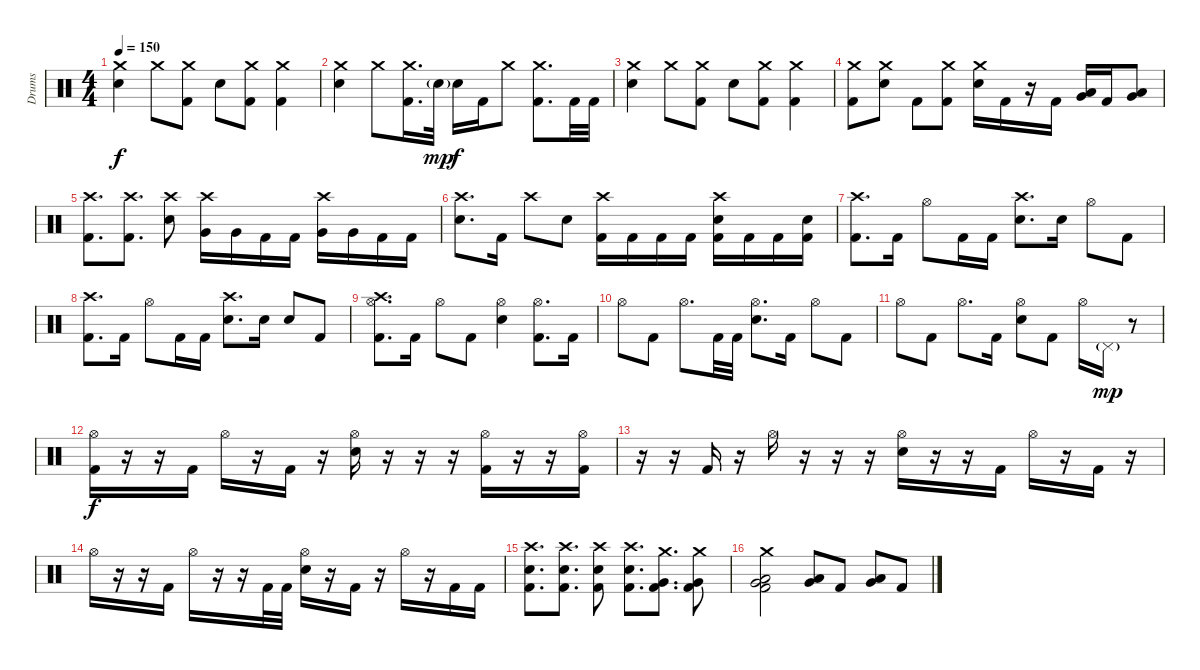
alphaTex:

\track ("Drums" "Drums") {instrument percussion}
\staff {score}
\articulation defaults
\ts (4 4)
\tempo 150
\clef neutral
\ks c
("Crash medium (hit)" "Snare (hit) 2").4{dy f} "Crash medium (hit)".8 ("Crash medium (hit)" "Kick (hit) 2").8 "Snare (hit) 2".8 ("Crash medium (hit)" "Kick (hit) 2").8 ("Crash medium (hit)" "Kick (hit) 2").4 |
("Crash medium (hit)" "Snare (hit) 2").4 "Crash medium (hit)".8 ("Crash medium (hit)" "Kick (hit) 2").16{d} "Snare (hit) 2"{g}.32{dy mp} "Snare (hit) 2".16{dy f} "Kick (hit) 2".16 "Crash medium (hit)".8 ("Crash medium (hit)" "Kick (hit) 2").8{d} "Kick (hit) 2".32 "Kick (hit) 2".32 |
("Crash medium (hit)" "Snare (hit) 2").4 "Crash medium (hit)".8 ("Crash medium (hit)" "Kick (hit) 2").8 "Snare (hit) 2".8 ("Crash medium (hit)" "Kick (hit) 2").8 ("Crash medium (hit)" "Kick (hit) 2").4 |
("Crash medium (hit)" "Kick (hit) 2").8 ("Crash medium (hit)" "Snare (hit) 2").8 "Kick (hit) 2".8 ("Crash medium (hit)" "Kick (hit) 2").8 ("Crash medium (hit)" "Snare (hit) 2").16 "Kick (hit) 2".16 r.16 "Kick (hit) 2".16 ("Very Low Tom (hit)" "Low Tom (hit)").16 "Kick (hit) 2".16 ("Low Floor Tom (hit)" "Very Low Tom (hit)").8 |
("Crash high (hit)" "Kick (hit) 2").8{d} ("Crash high (hit)" "Kick (hit) 2").8{d} ("Crash high (hit)" "Snare (hit) 2").8 ("Crash high (hit)" "Very Low Tom (hit)").16 "Very Low Tom (hit)".16 "Kick (hit) 2".16 "Kick (hit) 2".16 ("Crash high (hit)" "Very Low Tom (hit)").16 "Very Low Tom (hit)".16 "Kick (hit) 2".16 "Kick (hit) 2".16 |
("Crash high (hit)" "Snare (hit) 2").8{d} "Kick (hit) 2".16 "Crash high (hit)".8 "Snare (hit) 2".8 ("Crash high (hit)" "Kick (hit) 2").16 "Kick (hit) 2".16 "Kick (hit) 2".16 "Kick (hit) 2".16 ("Crash high (hit)" "Snare (hit) 2" "Kick (hit) 2").16 "Kick (hit) 2".16 "Kick (hit) 2".16 ("Snare (hit) 2" "Kick (hit) 2").16 |
("Crash high (hit)" "Kick (hit) 2").8{d} "Kick (hit) 2".16 "Hi-Hat (open)".8 "Kick (hit) 2".16 "Kick (hit) 2".16 ("Crash high (hit)" "Snare (hit) 2").8{d} "Snare (hit) 2".16 "Hi-Hat (open)".8 "Kick (hit) 2".8 |
("Crash high (hit)" "Kick (hit) 2").8{d} "Kick (hit) 2".16 "Hi-Hat (open)".8 "Kick (hit) 2".16 "Kick (hit) 2".16 ("Crash high (hit)" "Snare (hit) 2").8{d} "Snare (hit) 2".16 "Snare (hit) 2".8 "Kick (hit) 2".8 |
("Crash high (hit)" "Hi-Hat (open)" "Kick (hit) 2").8{d} "Kick (hit) 2".16 "Hi-Hat (open)".8 "Kick (hit) 2".8 ("Hi-Hat (open)" "Snare (hit) 2").4 ("Hi-Hat (open)" "Kick (hit) 2").8{d} "Kick (hit) 2".16 |
"Hi-Hat (open)".8 "Kick (hit) 2".8 "Hi-Hat (open)".8{d} "Kick (hit) 2".32 "Kick (hit) 2".32 ("Hi-Hat (open)" "Snare (hit) 2").8{d} "Kick (hit) 2".16 "Hi-Hat (open)".8 "Kick (hit) 2".8 |
"Hi-Hat (open)".8 "Kick (hit) 2".8 "Hi-Hat (open)".8{d} "Kick (hit) 2".16 ("Hi-Hat (open)" "Snare (hit) 2").8 "Kick (hit) 2".8 "Hi-Hat (open)".16 "Pedal Hi-Hat (hit)"{g}.16{dy mp} r.8 |
("Hi-Hat (open)" "Kick (hit) 2").16{dy f} r.16 r.16 "Kick (hit) 2".16 "Hi-Hat (open)".16 r.16 "Kick (hit) 2".16 r.16 ("Hi-Hat (open)" "Snare (hit) 2").16 r.16 r.16 r.16 ("Hi-Hat (open)" "Kick (hit) 2").16 r.16 r.16 ("Hi-Hat (open)" "Kick (hit) 2").16 |
r.16 r.16 "Kick (hit) 2".16 r.16 "Hi-Hat (open)".16 r.16 r.16 r.16 ("Hi-Hat (open)" "Snare (hit) 2").16 r.16 r.16 "Kick (hit) 2".16 "Hi-Hat (open)".16 r.16 "Kick (hit) 2".16 r.16 |
"Hi-Hat (open)".16 r.16 r.16 "Kick (hit) 2".16 "Hi-Hat (open)".16 r.16 r.16 "Kick (hit) 2".32 "Kick (hit) 2".32 ("Hi-Hat (open)" "Snare (hit) 2").16 r.16 "Kick (hit) 2".16 r.16 "Hi-Hat (open)".16 r.16 "Kick (hit) 2".16 "Kick (hit) 2".16 |
("Crash high (hit)" "Snare (hit) 2" "Kick (hit) 2").8{d} ("Crash high (hit)" "Snare (hit) 2" "Kick (hit) 2").8{d} ("Crash high (hit)" "Snare (hit) 2" "Kick (hit) 2").8 ("Crash high (hit)" "Snare (hit) 2" "Kick (hit) 2").8{d} ("Crash medium (hit)" "Very Low Tom (hit)" "Kick (hit) 2").8{d} ("Crash medium (hit)" "Very Low Tom (hit)" "Kick (hit) 2").8 |
("Crash medium (hit)" "Low Tom (hit)" "Very Low Tom (hit)" "Kick (hit) 2").2 ("Very Low Tom (hit)" "Low Tom (hit)").8 "Kick (hit) 2".8 ("Low Floor Tom (hit)" "Very Low Tom (hit)").8 "Kick (hit) 2".8
